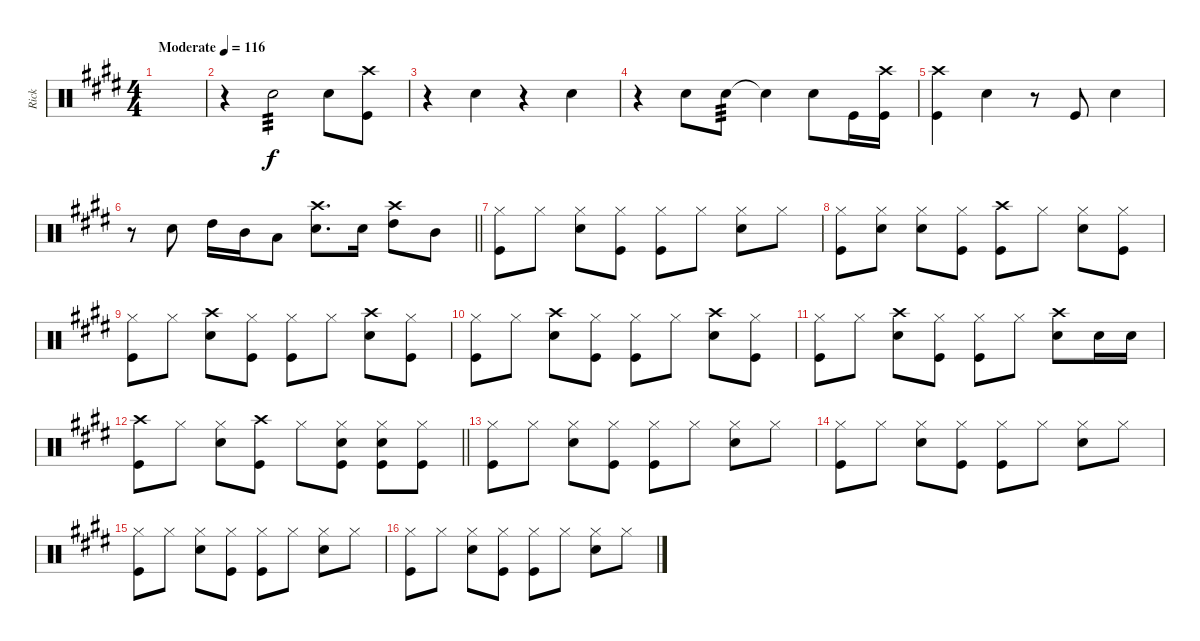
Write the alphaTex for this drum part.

\track ("Rick" "Rick") {instrument percussion}
\staff {score}
\articulation defaults
\ts (4 4)
\tempo (116 "Moderate")
\clef neutral
\ks e
|
r.4 "Snare (hit) 2".2{tp 3} "Snare (hit) 2".8 ("Crash high (hit)" "Kick (hit)").8 |
r.4 "Snare (hit) 2".4 r.4 "Snare (hit) 2".4 |
r.4 "Snare (hit) 2".8 "Snare (hit) 2".8{tp 3} "Snare (hit)"{t}.4 "Snare (hit) 2".8 "Kick (hit)".16 ("Crash high (hit)" "Kick (hit)").16 |
("Crash high (hit)" "Kick (hit)").4 "Snare (hit) 2".4 r.8 "Kick (hit)".8 "Snare (hit) 2".4 |
\barLineRight lightlight
r.8 "Snare (hit) 2".8 "High Tom (hit)".16 "Mid Tom (hit)".16 "Low Tom (hit)".8 ("Crash high (hit)" "Snare (hit) 2").8{d} "Snare (hit) 2".16 ("Crash high (hit)" "High Tom (hit)").8 "Mid Tom (hit)".8 |
("Hi-Hat (closed)" "Kick (hit)").8 "Hi-Hat (closed)".8 ("Hi-Hat (closed)" "Snare (hit) 2").8 ("Hi-Hat (closed)" "Kick (hit)").8 ("Hi-Hat (closed)" "Kick (hit)").8 "Hi-Hat (closed)".8 ("Hi-Hat (closed)" "Snare (hit) 2").8 "Hi-Hat (closed)".8 |
("Hi-Hat (closed)" "Kick (hit)").8 ("Hi-Hat (closed)" "Snare (hit) 2").8 ("Hi-Hat (closed)" "Snare (hit) 2").8 ("Hi-Hat (closed)" "Kick (hit)").8 ("Crash high (hit)" "Kick (hit)").8 "Hi-Hat (closed)".8 ("Hi-Hat (closed)" "Snare (hit) 2").8 ("Hi-Hat (closed)" "Kick (hit)").8 |
("Hi-Hat (closed)" "Kick (hit)").8 "Hi-Hat (closed)".8 ("Crash high (hit)" "Snare (hit) 2").8 ("Hi-Hat (closed)" "Kick (hit)").8 ("Hi-Hat (closed)" "Kick (hit)").8 "Hi-Hat (closed)".8 ("Crash high (hit)" "Snare (hit) 2").8 ("Hi-Hat (closed)" "Kick (hit)").8 |
("Hi-Hat (closed)" "Kick (hit)").8 "Hi-Hat (closed)".8 ("Crash high (hit)" "Snare (hit) 2").8 ("Hi-Hat (closed)" "Kick (hit)").8 ("Hi-Hat (closed)" "Kick (hit)").8 "Hi-Hat (closed)".8 ("Crash high (hit)" "Snare (hit) 2").8 ("Hi-Hat (closed)" "Kick (hit)").8 |
("Hi-Hat (closed)" "Kick (hit)").8 "Hi-Hat (closed)".8 ("Crash high (hit)" "Snare (hit) 2").8 ("Hi-Hat (closed)" "Kick (hit)").8 ("Hi-Hat (closed)" "Kick (hit)").8 "Hi-Hat (closed)".8 ("Crash high (hit)" "Snare (hit) 2").8 "Snare (hit) 2".16 "Snare (hit) 2".16 |
\barLineRight lightlight
("Crash high (hit)" "Kick (hit)").8 "Hi-Hat (closed)".8 ("Hi-Hat (closed)" "Snare (hit) 2").8 ("Crash high (hit)" "Kick (hit)").8 "Hi-Hat (closed)".8 ("Hi-Hat (closed)" "Snare (hit) 2" "Kick (hit)").8 ("Hi-Hat (closed)" "Snare (hit) 2" "Kick (hit)").8 ("Hi-Hat (closed)" "Kick (hit)").8 |
("Hi-Hat (closed)" "Kick (hit)").8 "Hi-Hat (closed)".8 ("Hi-Hat (closed)" "Snare (hit) 2").8 ("Hi-Hat (closed)" "Kick (hit)").8 ("Hi-Hat (closed)" "Kick (hit)").8 "Hi-Hat (closed)".8 ("Hi-Hat (closed)" "Snare (hit) 2").8 "Hi-Hat (closed)".8 |
("Hi-Hat (closed)" "Kick (hit)").8 "Hi-Hat (closed)".8 ("Hi-Hat (closed)" "Snare (hit) 2").8 ("Hi-Hat (closed)" "Kick (hit)").8 ("Hi-Hat (closed)" "Kick (hit)").8 "Hi-Hat (closed)".8 ("Hi-Hat (closed)" "Snare (hit) 2").8 "Hi-Hat (closed)".8 |
("Hi-Hat (closed)" "Kick (hit)").8 "Hi-Hat (closed)".8 ("Hi-Hat (closed)" "Snare (hit) 2").8 ("Hi-Hat (closed)" "Kick (hit)").8 ("Hi-Hat (closed)" "Kick (hit)").8 "Hi-Hat (closed)".8 ("Hi-Hat (closed)" "Snare (hit) 2").8 "Hi-Hat (closed)".8 |
("Hi-Hat (closed)" "Kick (hit)").8 "Hi-Hat (closed)".8 ("Hi-Hat (closed)" "Snare (hit) 2").8 ("Hi-Hat (closed)" "Kick (hit)").8 ("Hi-Hat (closed)" "Kick (hit)").8 "Hi-Hat (closed)".8 ("Hi-Hat (closed)" "Snare (hit) 2").8 "Hi-Hat (closed)".8
